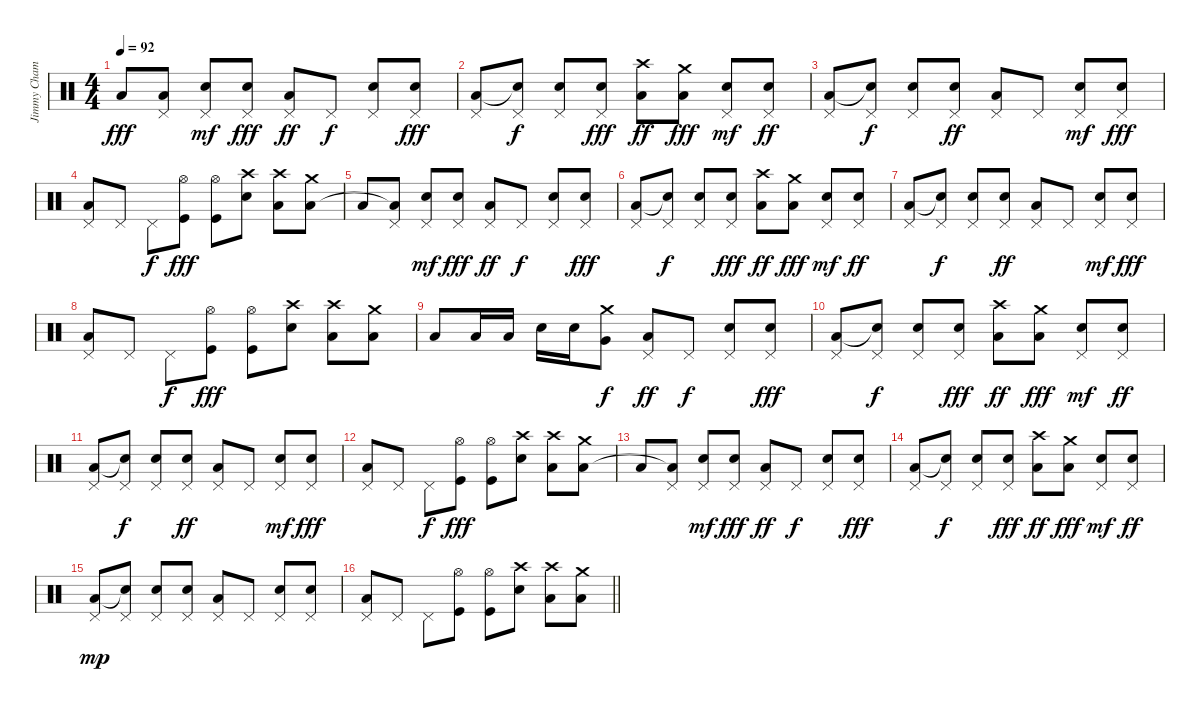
\track ("Jimmy Chamberlin" "Jimmy Cham") {instrument percussion}
\staff {score}
\articulation defaults
\ts (4 4)
\tempo 92
\clef neutral
\ks c "Low Floor Tom (hit)".8{dy fff}
("Pedal Hi-Hat (hit)" "Low Floor Tom (hit)"{t}).8 ("Pedal Hi-Hat (hit)" "Snare (hit) 2").8{dy mf} ("Pedal Hi-Hat (hit)" "Snare (hit) 2").8{dy fff} ("Pedal Hi-Hat (hit)" "Low Floor Tom (hit)").8{dy ff} "Pedal Hi-Hat (hit)".8{dy f} ("Pedal Hi-Hat (hit)" "Snare (hit) 2").8 ("Pedal Hi-Hat (hit)" "Snare (hit) 2").8{dy fff} |
("Pedal Hi-Hat (hit)" "Low Floor Tom (hit)").8 ("Pedal Hi-Hat (hit)" "Snare (hit)"{t}).8{dy f} ("Pedal Hi-Hat (hit)" "Snare (hit) 2").8 ("Pedal Hi-Hat (hit)" "Snare (hit) 2").8{dy fff} ("Crash high (hit)" "Low Tom (hit)").8{dy ff} ("Crash medium (hit)" "Low Floor Tom (hit)").8{dy fff} ("Pedal Hi-Hat (hit)" "Snare (hit) 2").8{dy mf} ("Pedal Hi-Hat (hit)" "Snare (hit) 2").8{dy ff} |
("Pedal Hi-Hat (hit)" "Low Floor Tom (hit)").8 ("Pedal Hi-Hat (hit)" "Snare (hit)"{t}).8{dy f} ("Pedal Hi-Hat (hit)" "Snare (hit) 2").8 ("Pedal Hi-Hat (hit)" "Snare (hit) 2").8{dy ff} ("Pedal Hi-Hat (hit)" "Low Floor Tom (hit)").8 "Pedal Hi-Hat (hit)".8 ("Pedal Hi-Hat (hit)" "Snare (hit) 2").8{dy mf} ("Pedal Hi-Hat (hit)" "Snare (hit) 2").8{dy fff} |
("Pedal Hi-Hat (hit)" "Low Tom (hit)").8 "Pedal Hi-Hat (hit)".8 "Pedal Hi-Hat (hit)".8{dy f} ("Hi-Hat (open)" "Kick (hit)").8{dy fff} ("Hi-Hat (open)" "Kick (hit)").8 ("Crash high (hit)" "Snare (hit) 2").8 ("Crash high (hit)" "Low Tom (hit)").8 ("Crash medium (hit)" "Low Floor Tom (hit)").8 |
"Low Floor Tom (hit)".8 ("Pedal Hi-Hat (hit)" "Low Floor Tom (hit)"{t}).8 ("Pedal Hi-Hat (hit)" "Snare (hit) 2").8{dy mf} ("Pedal Hi-Hat (hit)" "Snare (hit) 2").8{dy fff} ("Pedal Hi-Hat (hit)" "Low Floor Tom (hit)").8{dy ff} "Pedal Hi-Hat (hit)".8{dy f} ("Pedal Hi-Hat (hit)" "Snare (hit) 2").8 ("Pedal Hi-Hat (hit)" "Snare (hit) 2").8{dy fff} |
("Pedal Hi-Hat (hit)" "Low Floor Tom (hit)").8 ("Pedal Hi-Hat (hit)" "Snare (hit)"{t}).8{dy f} ("Pedal Hi-Hat (hit)" "Snare (hit) 2").8 ("Pedal Hi-Hat (hit)" "Snare (hit) 2").8{dy fff} ("Crash high (hit)" "Low Tom (hit)").8{dy ff} ("Crash medium (hit)" "Low Floor Tom (hit)").8{dy fff} ("Pedal Hi-Hat (hit)" "Snare (hit) 2").8{dy mf} ("Pedal Hi-Hat (hit)" "Snare (hit) 2").8{dy ff} |
("Pedal Hi-Hat (hit)" "Low Floor Tom (hit)").8 ("Pedal Hi-Hat (hit)" "Snare (hit)"{t}).8{dy f} ("Pedal Hi-Hat (hit)" "Snare (hit) 2").8 ("Pedal Hi-Hat (hit)" "Snare (hit) 2").8{dy ff} ("Pedal Hi-Hat (hit)" "Low Floor Tom (hit)").8 "Pedal Hi-Hat (hit)".8 ("Pedal Hi-Hat (hit)" "Snare (hit) 2").8{dy mf} ("Pedal Hi-Hat (hit)" "Snare (hit) 2").8{dy fff} |
("Pedal Hi-Hat (hit)" "Low Tom (hit)").8 "Pedal Hi-Hat (hit)".8 "Pedal Hi-Hat (hit)".8{dy f} ("Hi-Hat (open)" "Kick (hit)").8{dy fff} ("Hi-Hat (open)" "Kick (hit)").8 ("Crash high (hit)" "Snare (hit) 2").8 ("Crash high (hit)" "Low Tom (hit)").8 ("Crash medium (hit)" "Low Floor Tom (hit)").8 |
"Low Floor Tom (hit)".8 "Low Tom (hit)".16 "Low Tom (hit)".16 "Snare (hit) 2".16 "Snare (hit) 2".16 ("Crash medium (hit)" "Very Low Tom (hit)").8{dy f} ("Pedal Hi-Hat (hit)" "Low Tom (hit)").8{dy ff} "Pedal Hi-Hat (hit)".8{dy f} ("Pedal Hi-Hat (hit)" "Snare (hit) 2").8 ("Pedal Hi-Hat (hit)" "Snare (hit) 2").8{dy fff} |
("Pedal Hi-Hat (hit)" "Low Floor Tom (hit)").8 ("Pedal Hi-Hat (hit)" "Snare (hit)"{t}).8{dy f} ("Pedal Hi-Hat (hit)" "Snare (hit) 2").8 ("Pedal Hi-Hat (hit)" "Snare (hit) 2").8{dy fff} ("Crash high (hit)" "Low Tom (hit)").8{dy ff} ("Crash medium (hit)" "Low Floor Tom (hit)").8{dy fff} ("Pedal Hi-Hat (hit)" "Snare (hit) 2").8{dy mf} ("Pedal Hi-Hat (hit)" "Snare (hit) 2").8{dy ff} |
("Pedal Hi-Hat (hit)" "Low Floor Tom (hit)").8 ("Pedal Hi-Hat (hit)" "Snare (hit)"{t}).8{dy f} ("Pedal Hi-Hat (hit)" "Snare (hit) 2").8 ("Pedal Hi-Hat (hit)" "Snare (hit) 2").8{dy ff} ("Pedal Hi-Hat (hit)" "Low Floor Tom (hit)").8 "Pedal Hi-Hat (hit)".8 ("Pedal Hi-Hat (hit)" "Snare (hit) 2").8{dy mf} ("Pedal Hi-Hat (hit)" "Snare (hit) 2").8{dy fff} |
("Pedal Hi-Hat (hit)" "Low Tom (hit)").8 "Pedal Hi-Hat (hit)".8 "Pedal Hi-Hat (hit)".8{dy f} ("Hi-Hat (open)" "Kick (hit)").8{dy fff} ("Hi-Hat (open)" "Kick (hit)").8 ("Crash high (hit)" "Snare (hit) 2").8 ("Crash high (hit)" "Low Tom (hit)").8 ("Crash medium (hit)" "Low Floor Tom (hit)").8 |
"Low Floor Tom (hit)".8 ("Pedal Hi-Hat (hit)" "Low Floor Tom (hit)"{t}).8 ("Pedal Hi-Hat (hit)" "Snare (hit) 2").8{dy mf} ("Pedal Hi-Hat (hit)" "Snare (hit) 2").8{dy fff} ("Pedal Hi-Hat (hit)" "Low Floor Tom (hit)").8{dy ff} "Pedal Hi-Hat (hit)".8{dy f} ("Pedal Hi-Hat (hit)" "Snare (hit) 2").8 ("Pedal Hi-Hat (hit)" "Snare (hit) 2").8{dy fff} |
("Pedal Hi-Hat (hit)" "Low Floor Tom (hit)").8 ("Pedal Hi-Hat (hit)" "Snare (hit)"{t}).8{dy f} ("Pedal Hi-Hat (hit)" "Snare (hit) 2").8 ("Pedal Hi-Hat (hit)" "Snare (hit) 2").8{dy fff} ("Crash high (hit)" "Low Tom (hit)").8{dy ff} ("Crash medium (hit)" "Low Floor Tom (hit)").8{dy fff} ("Pedal Hi-Hat (hit)" "Snare (hit) 2").8{dy mf} ("Pedal Hi-Hat (hit)" "Snare (hit) 2").8{dy ff} |
("Pedal Hi-Hat (hit)" "Low Floor Tom (hit)").8{dy mp} ("Pedal Hi-Hat (hit)" "Snare (hit)"{t}).8 ("Pedal Hi-Hat (hit)" "Snare (hit) 2").8 ("Pedal Hi-Hat (hit)" "Snare (hit) 2").8 ("Pedal Hi-Hat (hit)" "Low Floor Tom (hit)").8 "Pedal Hi-Hat (hit)".8 ("Pedal Hi-Hat (hit)" "Snare (hit) 2").8 ("Pedal Hi-Hat (hit)" "Snare (hit) 2").8 |
\barLineRight lightlight
("Pedal Hi-Hat (hit)" "Low Tom (hit)").8 "Pedal Hi-Hat (hit)".8 "Pedal Hi-Hat (hit)".8 ("Hi-Hat (open)" "Kick (hit)").8 ("Hi-Hat (open)" "Kick (hit)").8 ("Crash high (hit)" "Snare (hit) 2").8 ("Crash high (hit)" "Low Tom (hit)").8 ("Crash medium (hit)" "Low Floor Tom (hit)").8
